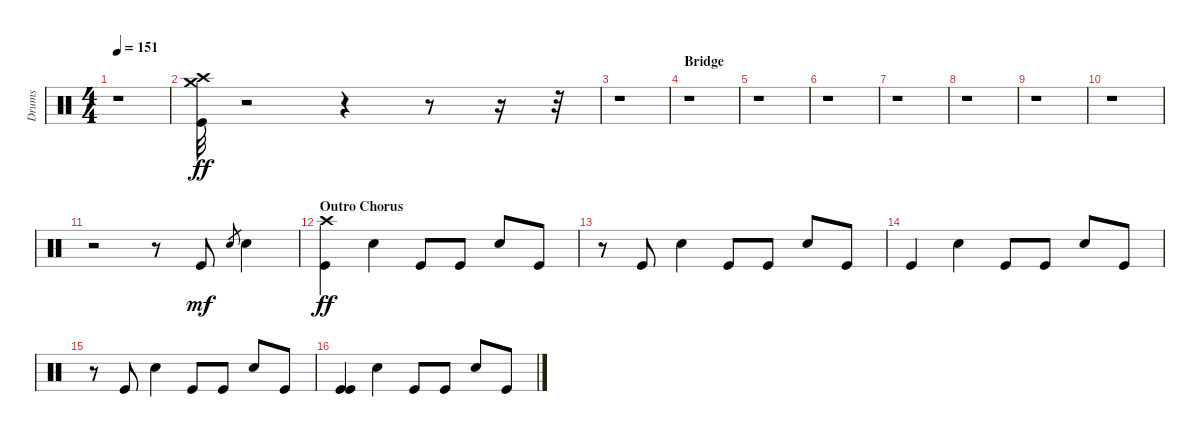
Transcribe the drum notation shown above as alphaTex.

\track ("Drums" "Drums") {instrument percussion}
\staff {score}
\articulation defaults
\ts (4 4)
\tempo 151
\clef neutral
\ks c
r.1{dy ff} |
("Crash medium (hit)" "Crash high (hit)" "Kick (hit)").32 r.2 r.4 r.8 r.16 r.32 |
r.1 |
\section ("" "Bridge")
r.1 |
r.1 |
r.1 |
r.1 |
r.1 |
r.1 |
r.1 |
r.2 r.8 "Kick (hit)".8{dy mf} "Snare (hit) 2".8{gr} "Snare (hit) 2".4 |
\section ("" "Outro Chorus")
("Crash high (hit)" "Kick (hit)").4{dy ff} "Snare (hit) 2".4 "Kick (hit)".8 "Kick (hit)".8 "Snare (hit) 2".8 "Kick (hit)".8 |
r.8 "Kick (hit)".8 "Snare (hit) 2".4 "Kick (hit)".8 "Kick (hit)".8 "Snare (hit) 2".8 "Kick (hit)".8 |
"Kick (hit)".4 "Snare (hit) 2".4 "Kick (hit)".8 "Kick (hit)".8 "Snare (hit) 2".8 "Kick (hit)".8 |
r.8 "Kick (hit)".8 "Snare (hit) 2".4 "Kick (hit)".8 "Kick (hit)".8 "Snare (hit) 2".8 "Kick (hit)".8 |
("Kick (hit)" "Kick (hit)").4 "Snare (hit) 2".4 "Kick (hit)".8 "Kick (hit)".8 "Snare (hit) 2".8 "Kick (hit)".8
